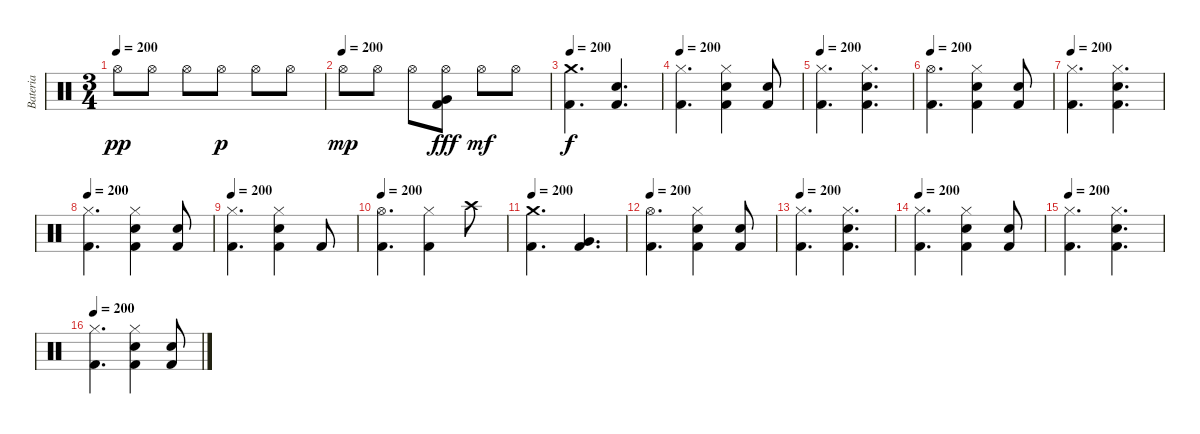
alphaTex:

\track ("Bateria" "Bateria") {instrument percussion}
\staff {score}
\articulation defaults
\ts (3 4)
\tempo 200
\clef neutral
\ks c "Hi-Hat (open)".8{dy pp} "Hi-Hat (open)".8 "Hi-Hat (open)".8 "Hi-Hat (open)".8{dy p} "Hi-Hat (open)".8 "Hi-Hat (open)".8
|
\tempo (200)
"Hi-Hat (open)".8{dy mp} "Hi-Hat (open)".8 "Hi-Hat (open)".8 ("Hi-Hat (open)" "Very Low Tom (hit)" "Kick (hit) 2").8{dy fff} "Hi-Hat (open)".8{dy mf} "Hi-Hat (open)".8 |
\tempo 200
("Crash medium (hit)" "Kick (hit) 2").4{d dy f} ("Electric Snare (hit)" "Kick (hit) 2").4{d} |
\tempo 200
("Hi-Hat (closed)" "Kick (hit) 2").4{d} ("Hi-Hat (closed)" "Electric Snare (hit)" "Kick (hit) 2").4 ("Electric Snare (hit)" "Kick (hit) 2").8 |
\tempo 200
("Hi-Hat (closed)" "Kick (hit) 2").4{d} ("Hi-Hat (closed)" "Electric Snare (hit)" "Kick (hit) 2").4{d} |
\tempo 200
("Hi-Hat (open)" "Kick (hit) 2").4{d} ("Hi-Hat (closed)" "Electric Snare (hit)" "Kick (hit) 2").4 ("Electric Snare (hit)" "Kick (hit) 2").8 |
\tempo 200
("Hi-Hat (closed)" "Kick (hit) 2").4{d} ("Hi-Hat (closed)" "Electric Snare (hit)" "Kick (hit) 2").4{d} |
\tempo 200
("Hi-Hat (closed)" "Kick (hit) 2").4{d} ("Hi-Hat (closed)" "Electric Snare (hit)" "Kick (hit) 2").4 ("Electric Snare (hit)" "Kick (hit) 2").8 |
\tempo 200
("Hi-Hat (closed)" "Kick (hit) 2").4{d} ("Hi-Hat (closed)" "Electric Snare (hit)" "Kick (hit) 2").4 "Kick (hit) 2".8 |
\tempo 200
("Hi-Hat (open)" "Kick (hit) 2").4{d} ("Hi-Hat (closed)" "Kick (hit) 2").4 "Crash high (hit)".8 |
\tempo 200
("Crash medium (hit)" "Kick (hit) 2").4{d} ("Very Low Tom (hit)" "Kick (hit) 2").4{d} |
\tempo 200
("Hi-Hat (open)" "Kick (hit) 2").4{d} ("Hi-Hat (closed)" "Electric Snare (hit)" "Kick (hit) 2").4 ("Electric Snare (hit)" "Kick (hit) 2").8 |
\tempo 200
("Hi-Hat (closed)" "Kick (hit) 2").4{d} ("Hi-Hat (closed)" "Electric Snare (hit)" "Kick (hit) 2").4{d} |
\tempo 200
("Hi-Hat (closed)" "Kick (hit) 2").4{d} ("Hi-Hat (closed)" "Electric Snare (hit)" "Kick (hit) 2").4 ("Electric Snare (hit)" "Kick (hit) 2").8 |
\tempo 200
("Hi-Hat (closed)" "Kick (hit) 2").4{d} ("Hi-Hat (closed)" "Electric Snare (hit)" "Kick (hit) 2").4{d} |
\tempo 200
("Hi-Hat (closed)" "Kick (hit) 2").4{d} ("Hi-Hat (closed)" "Electric Snare (hit)" "Kick (hit) 2").4 ("Electric Snare (hit)" "Kick (hit) 2").8
